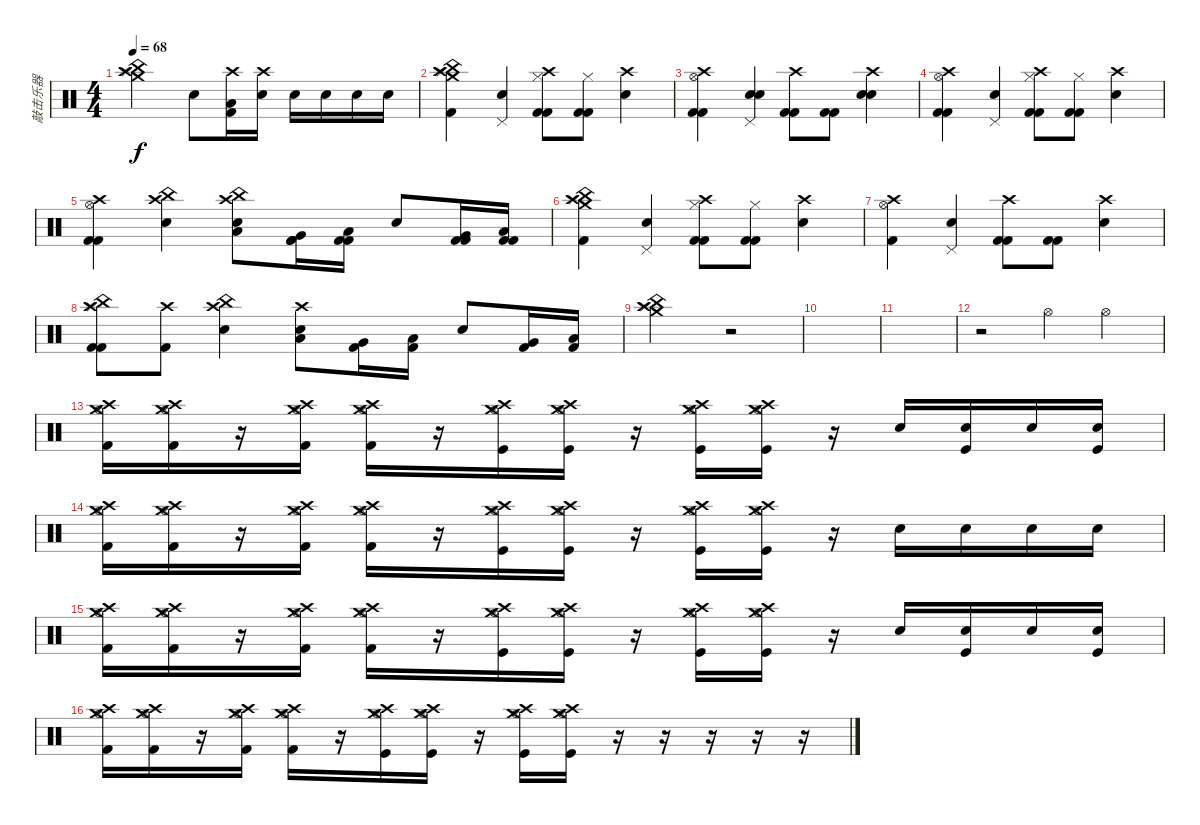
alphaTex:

\track ("敲击乐器" "敲击乐器") {instrument percussion}
\staff {score}
\articulation defaults
\ts (4 4)
\tempo 68
\clef neutral
\ks c
("Crash high (hit)" "China (hit)" "Splash (hit)" "Crash medium (hit)").2{dy f} "Electric Snare (hit)".8 ("Crash high (hit)" "Low Floor Tom (hit)" "Kick (hit) 2").16 ("Crash high (hit)" "Electric Snare (hit)").16 "Electric Snare (hit)".16 "Electric Snare (hit)".16 "Electric Snare (hit)".16 "Electric Snare (hit)".16 |
("Kick (hit) 2" "Crash high (hit)" "China (hit)" "Splash (hit)" "Crash medium (hit)").4 ("Pedal Hi-Hat (hit)" "Snare (hit) 2").4 ("Crash high (hit)" "Hi-Hat (closed)" "Kick (hit) 2" "Kick (hit) 2").8 ("Hi-Hat (closed)" "Kick (hit) 2" "Kick (hit) 2").8 ("Crash high (hit)" "Electric Snare (hit)").4 |
("Crash high (hit)" "Hi-Hat (open)" "Kick (hit) 2" "Kick (hit) 2").4 ("Pedal Hi-Hat (hit)" "Snare (hit) 2" "Snare (hit) 2").4 ("Crash high (hit)" "Kick (hit) 2" "Kick (hit) 2").8 ("Kick (hit) 2" "Kick (hit) 2").8 ("Crash high (hit)" "Electric Snare (hit)" "Electric Snare (hit)").4 |
("Crash high (hit)" "Hi-Hat (open)" "Kick (hit) 2" "Kick (hit) 2").4 ("Pedal Hi-Hat (hit)" "Snare (hit) 2").4 ("Crash high (hit)" "Hi-Hat (closed)" "Kick (hit) 2" "Kick (hit) 2").8 ("Hi-Hat (closed)" "Kick (hit) 2" "Kick (hit) 2").8 ("Crash high (hit)" "Electric Snare (hit)").4 |
("Crash high (hit)" "Hi-Hat (open)" "Kick (hit) 2" "Kick (hit) 2").4 ("China (hit)" "Crash high (hit)" "Snare (hit) 2").4 ("China (hit)" "Crash high (hit)" "Low Tom (hit)" "Electric Snare (hit)").8 ("Very Low Tom (hit)" "Kick (hit) 2" "Kick (hit) 2").16 ("Low Floor Tom (hit)" "Kick (hit) 2" "Kick (hit) 2").16 "Electric Snare (hit)".8 ("Very Low Tom (hit)" "Kick (hit) 2" "Kick (hit) 2").16 ("Low Floor Tom (hit)" "Kick (hit) 2" "Kick (hit) 2").16 |
("Kick (hit) 2" "Crash high (hit)" "China (hit)" "Splash (hit)" "Crash medium (hit)").4 ("Pedal Hi-Hat (hit)" "Snare (hit) 2").4 ("Crash high (hit)" "Hi-Hat (closed)" "Kick (hit) 2" "Kick (hit) 2").8 ("Hi-Hat (closed)" "Kick (hit) 2" "Kick (hit) 2").8 ("Crash high (hit)" "Electric Snare (hit)").4 |
("Crash high (hit)" "Hi-Hat (open)" "Kick (hit) 2").4 ("Pedal Hi-Hat (hit)" "Snare (hit) 2").4 ("Crash high (hit)" "Kick (hit) 2" "Kick (hit) 2").8 ("Kick (hit) 2" "Kick (hit) 2").8 ("Crash high (hit)" "Electric Snare (hit)").4 |
("Kick (hit) 2" "Crash high (hit)" "China (hit)" "Splash (hit)" "Kick (hit) 2").8 ("Crash high (hit)" "Kick (hit) 2").8 ("China (hit)" "Crash high (hit)" "Snare (hit) 2").4 ("Crash high (hit)" "Low Tom (hit)" "Electric Snare (hit)").8 ("Very Low Tom (hit)" "Kick (hit) 2").16 ("Low Floor Tom (hit)" "Kick (hit) 2").16 "Electric Snare (hit)".8 ("Very Low Tom (hit)" "Kick (hit) 2").16 ("Low Floor Tom (hit)" "Kick (hit) 2").16 |
("Crash high (hit)" "China (hit)" "Splash (hit)" "Crash medium (hit)").2 r.2 |
|
|
r.2 "Hi-Hat (open)".4 "Hi-Hat (open)".4 |
("Crash medium (hit)" "Crash high (hit)" "Hi-Hat (open)" "Kick (hit) 2").16 ("Crash medium (hit)" "Crash high (hit)" "Hi-Hat (open)" "Kick (hit) 2").16 r.16 ("Crash medium (hit)" "Crash high (hit)" "Hi-Hat (open)" "Kick (hit) 2").16 ("Crash medium (hit)" "Crash high (hit)" "Hi-Hat (open)" "Kick (hit) 2").16 r.16 ("Crash medium (hit)" "Crash high (hit)" "Hi-Hat (open)" "Kick (hit)").16 ("Crash medium (hit)" "Crash high (hit)" "Hi-Hat (open)" "Kick (hit)").16 r.16 ("Crash medium (hit)" "Crash high (hit)" "Hi-Hat (open)" "Kick (hit)").16 ("Crash medium (hit)" "Crash high (hit)" "Hi-Hat (open)" "Kick (hit)").16 r.16 "Electric Snare (hit)".16 ("Kick (hit)" "Snare (hit) 2").16 "Electric Snare (hit)".16 ("Kick (hit)" "Snare (hit) 2").16 |
("Crash medium (hit)" "Crash high (hit)" "Hi-Hat (open)" "Kick (hit) 2").16 ("Crash medium (hit)" "Crash high (hit)" "Hi-Hat (open)" "Kick (hit) 2").16 r.16 ("Crash medium (hit)" "Crash high (hit)" "Hi-Hat (open)" "Kick (hit) 2").16 ("Crash medium (hit)" "Crash high (hit)" "Hi-Hat (open)" "Kick (hit) 2").16 r.16 ("Crash medium (hit)" "Crash high (hit)" "Hi-Hat (open)" "Kick (hit)").16 ("Crash medium (hit)" "Crash high (hit)" "Hi-Hat (open)" "Kick (hit)").16 r.16 ("Crash medium (hit)" "Crash high (hit)" "Hi-Hat (open)" "Kick (hit)").16 ("Crash medium (hit)" "Crash high (hit)" "Hi-Hat (open)" "Kick (hit)").16 r.16 "Electric Snare (hit)".16 "Electric Snare (hit)".16 "Electric Snare (hit)".16 "Electric Snare (hit)".16 |
("Crash medium (hit)" "Crash high (hit)" "Hi-Hat (open)" "Kick (hit) 2").16 ("Crash medium (hit)" "Crash high (hit)" "Hi-Hat (open)" "Kick (hit) 2").16 r.16 ("Crash medium (hit)" "Crash high (hit)" "Hi-Hat (open)" "Kick (hit) 2").16 ("Crash medium (hit)" "Crash high (hit)" "Hi-Hat (open)" "Kick (hit) 2").16 r.16 ("Crash medium (hit)" "Crash high (hit)" "Hi-Hat (open)" "Kick (hit)").16 ("Crash medium (hit)" "Crash high (hit)" "Hi-Hat (open)" "Kick (hit)").16 r.16 ("Crash medium (hit)" "Crash high (hit)" "Hi-Hat (open)" "Kick (hit)").16 ("Crash medium (hit)" "Crash high (hit)" "Hi-Hat (open)" "Kick (hit)").16 r.16 "Electric Snare (hit)".16 ("Kick (hit)" "Snare (hit) 2").16 "Electric Snare (hit)".16 ("Kick (hit)" "Snare (hit) 2").16 |
("Crash medium (hit)" "Crash high (hit)" "Hi-Hat (open)" "Kick (hit) 2").16 ("Crash medium (hit)" "Crash high (hit)" "Hi-Hat (open)" "Kick (hit) 2").16 r.16 ("Crash medium (hit)" "Crash high (hit)" "Hi-Hat (open)" "Kick (hit) 2").16 ("Crash medium (hit)" "Crash high (hit)" "Hi-Hat (open)" "Kick (hit) 2").16 r.16 ("Crash medium (hit)" "Crash high (hit)" "Hi-Hat (open)" "Kick (hit)").16 ("Crash medium (hit)" "Crash high (hit)" "Hi-Hat (open)" "Kick (hit)").16 r.16 ("Crash medium (hit)" "Crash high (hit)" "Hi-Hat (open)" "Kick (hit)").16 ("Crash medium (hit)" "Crash high (hit)" "Hi-Hat (open)" "Kick (hit)").16 r.16 r.16 r.16 r.16 r.16
